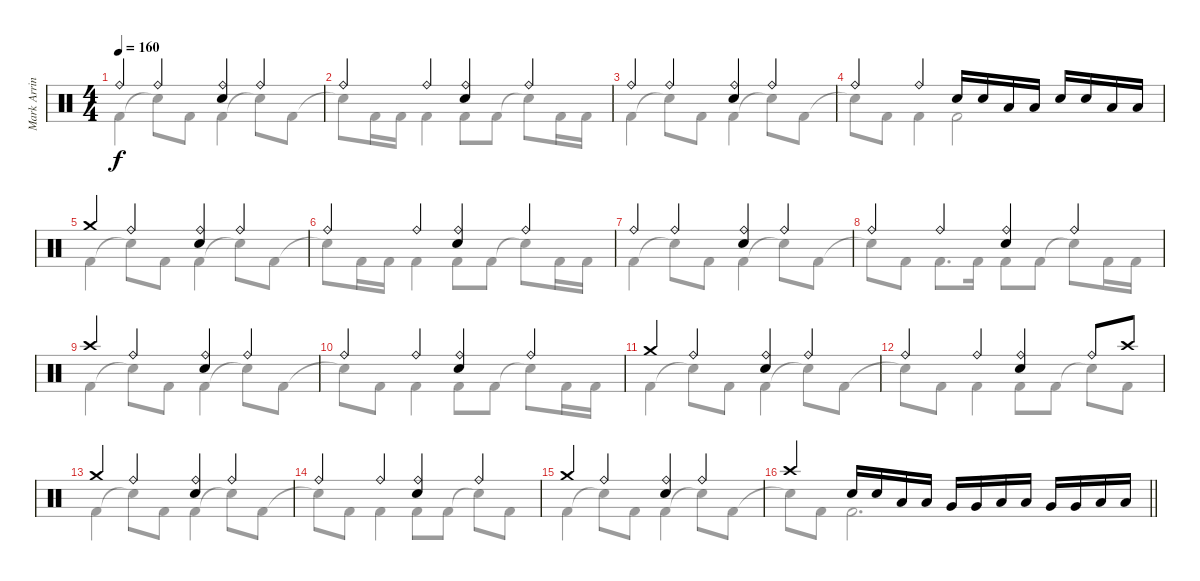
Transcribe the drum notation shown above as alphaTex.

\track ("Mark Arrington – drums" "Mark Arrin") {instrument percussion}
\staff {score}
\articulation defaults
\voice
\ts (4 4)
\tempo 160
\clef neutral
\ks c "Ride (bell)".4{dy f} "Ride (bell)".4
("Ride (bell)" "Electric Snare (hit)").4 "Ride (bell)".4 |
"Ride (bell)".4 "Ride (bell)".4 ("Ride (bell)" "Electric Snare (hit)").4 "Ride (bell)".4 |
"Ride (bell)".4 "Ride (bell)".4 ("Ride (bell)" "Electric Snare (hit)").4 "Ride (bell)".4 |
"Ride (bell)".4 "Ride (bell)".4 "Electric Snare (hit)".16 "Electric Snare (hit)".16 "Low Tom (hit)".16 "Low Tom (hit)".16 "Electric Snare (hit)".16 "Electric Snare (hit)".16 "Low Tom (hit)".16 "Low Tom (hit)".16 |
"Crash medium (hit)".4 "Ride (bell)".4 ("Ride (bell)" "Electric Snare (hit)").4 "Ride (bell)".4 |
"Ride (bell)".4 "Ride (bell)".4 ("Ride (bell)" "Electric Snare (hit)").4 "Ride (bell)".4 |
"Ride (bell)".4 "Ride (bell)".4 ("Ride (bell)" "Electric Snare (hit)").4 "Ride (bell)".4 |
"Ride (bell)".4 "Ride (bell)".4 ("Ride (bell)" "Electric Snare (hit)").4 "Ride (bell)".4 |
"Crash high (hit)".4 "Ride (bell)".4 ("Ride (bell)" "Electric Snare (hit)").4 "Ride (bell)".4 |
"Ride (bell)".4 "Ride (bell)".4 ("Ride (bell)" "Electric Snare (hit)").4 "Ride (bell)".4 |
"Crash medium (hit)".4 "Ride (bell)".4 ("Ride (bell)" "Electric Snare (hit)").4 "Ride (bell)".4 |
"Ride (bell)".4 "Ride (bell)".4 ("Ride (bell)" "Electric Snare (hit)").4 "Ride (bell)".8 "Crash high (hit)".8 |
"Crash medium (hit)".4 "Ride (bell)".4 ("Ride (bell)" "Electric Snare (hit)").4 "Ride (bell)".4 |
"Ride (bell)".4 "Ride (bell)".4 ("Ride (bell)" "Electric Snare (hit)").4 "Ride (bell)".4 |
"Crash medium (hit)".4 "Ride (bell)".4 ("Ride (bell)" "Electric Snare (hit)").4 "Ride (bell)".4 |
\barLineRight lightlight "Crash high (hit)".4 "Electric Snare (hit)".16 "Electric Snare (hit)".16 "Low Tom (hit)".16 "Low Tom (hit)".16 "Very Low Tom (hit)".16 "Very Low Tom (hit)".16 "Low Tom (hit)".16 "Low Tom (hit)".16 "Very Low Tom (hit)".16 "Very Low Tom (hit)".16 "Low Floor Tom (hit)".16 "Low Floor Tom (hit)".16
\voice
\clef neutral
\ottava regular
\simile none
\ks c "Kick (hit) 2".4{dy f} "Snare (hit)"{t}.8 "Kick (hit) 2".8 "Kick (hit) 2".4 "Snare (hit)"{t}.8 "Kick (hit) 2".8
|
"Snare (hit)"{t}.8 "Kick (hit) 2".16 "Kick (hit) 2".16 "Kick (hit) 2".4 "Kick (hit) 2".8 "Kick (hit) 2".8 "Snare (hit)"{t}.8 "Kick (hit) 2".16 "Kick (hit) 2".16 |
"Kick (hit) 2".4 "Snare (hit)"{t}.8 "Kick (hit) 2".8 "Kick (hit) 2".4 "Snare (hit)"{t}.8 "Kick (hit) 2".8 |
"Snare (hit)"{t}.8 "Kick (hit) 2".8 "Kick (hit) 2".4 "Kick (hit) 2".2 |
"Kick (hit) 2".4 "Snare (hit)"{t}.8 "Kick (hit) 2".8 "Kick (hit) 2".4 "Snare (hit)"{t}.8 "Kick (hit) 2".8 |
"Snare (hit)"{t}.8 "Kick (hit) 2".16 "Kick (hit) 2".16 "Kick (hit) 2".4 "Kick (hit) 2".8 "Kick (hit) 2".8 "Snare (hit)"{t}.8 "Kick (hit) 2".16 "Kick (hit) 2".16 |
"Kick (hit) 2".4 "Snare (hit)"{t}.8 "Kick (hit) 2".8 "Kick (hit) 2".4 "Snare (hit)"{t}.8 "Kick (hit) 2".8 |
"Snare (hit)"{t}.8 "Kick (hit) 2".8 "Kick (hit) 2".8{d} "Kick (hit) 2".16 "Kick (hit) 2".8 "Kick (hit) 2".8 "Snare (hit)"{t}.8 "Kick (hit) 2".16 "Kick (hit) 2".16 |
"Kick (hit) 2".4 "Snare (hit)"{t}.8 "Kick (hit) 2".8 "Kick (hit) 2".4 "Snare (hit)"{t}.8 "Kick (hit) 2".8 |
"Snare (hit)"{t}.8 "Kick (hit) 2".8 "Kick (hit) 2".4 "Kick (hit) 2".8 "Kick (hit) 2".8 "Snare (hit)"{t}.8 "Kick (hit) 2".16 "Kick (hit) 2".16 |
"Kick (hit) 2".4 "Snare (hit)"{t}.8 "Kick (hit) 2".8 "Kick (hit) 2".4 "Snare (hit)"{t}.8 "Kick (hit) 2".8 |
"Snare (hit)"{t}.8 "Kick (hit) 2".8 "Kick (hit) 2".4 "Kick (hit) 2".8 "Kick (hit) 2".8 "Snare (hit)"{t}.8 "Kick (hit) 2".8 |
"Kick (hit) 2".4 "Snare (hit)"{t}.8 "Kick (hit) 2".8 "Kick (hit) 2".4 "Snare (hit)"{t}.8 "Kick (hit) 2".8 |
"Snare (hit)"{t}.8 "Kick (hit) 2".8 "Kick (hit) 2".4 "Kick (hit) 2".8 "Kick (hit) 2".8 "Snare (hit)"{t}.8 "Kick (hit) 2".8 |
"Kick (hit) 2".4 "Snare (hit)"{t}.8 "Kick (hit) 2".8 "Kick (hit) 2".4 "Snare (hit)"{t}.8 "Kick (hit) 2".8 |
\barLineRight lightlight "Snare (hit)"{t}.8 "Kick (hit) 2".8 "Kick (hit) 2".2{d}
